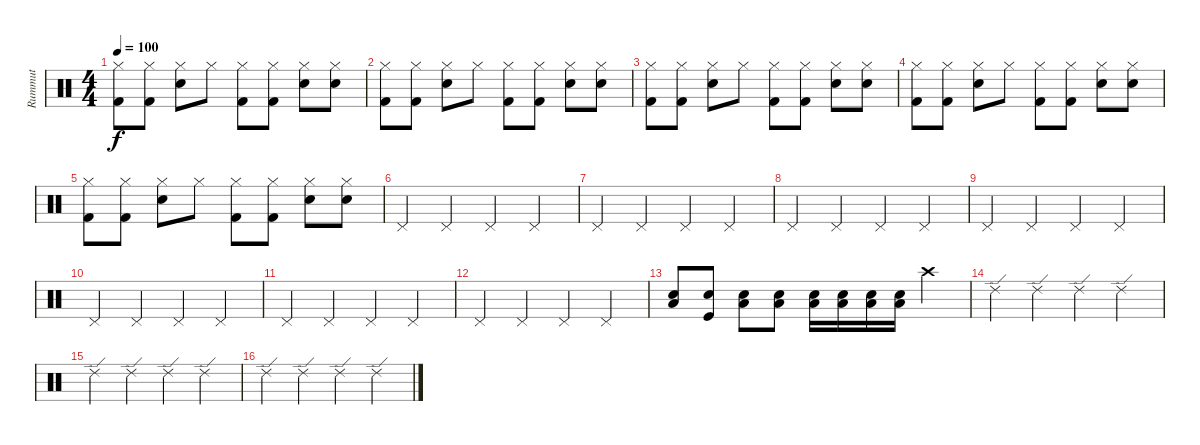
\track ("Rummut" "Rummut") {instrument percussion}
\staff {score}
\articulation defaults
\ts (4 4)
\tempo 100
\clef neutral
\ks c
("Hi-Hat (closed)" "Kick (hit) 2").8{dy f} ("Hi-Hat (closed)" "Kick (hit) 2").8 ("Hi-Hat (closed)" "Snare (hit) 2").8 "Hi-Hat (closed)".8 ("Hi-Hat (closed)" "Kick (hit) 2").8 ("Hi-Hat (closed)" "Kick (hit) 2").8 ("Hi-Hat (closed)" "Snare (hit) 2").8 ("Hi-Hat (closed)" "Snare (hit) 2").8 |
("Hi-Hat (closed)" "Kick (hit) 2").8 ("Hi-Hat (closed)" "Kick (hit) 2").8 ("Hi-Hat (closed)" "Snare (hit) 2").8 "Hi-Hat (closed)".8 ("Hi-Hat (closed)" "Kick (hit) 2").8 ("Hi-Hat (closed)" "Kick (hit) 2").8 ("Hi-Hat (closed)" "Snare (hit) 2").8 ("Hi-Hat (closed)" "Snare (hit) 2").8 |
("Hi-Hat (closed)" "Kick (hit) 2").8 ("Hi-Hat (closed)" "Kick (hit) 2").8 ("Hi-Hat (closed)" "Snare (hit) 2").8 "Hi-Hat (closed)".8 ("Hi-Hat (closed)" "Kick (hit) 2").8 ("Hi-Hat (closed)" "Kick (hit) 2").8 ("Hi-Hat (closed)" "Snare (hit) 2").8 ("Hi-Hat (closed)" "Snare (hit) 2").8 |
("Hi-Hat (closed)" "Kick (hit) 2").8 ("Hi-Hat (closed)" "Kick (hit) 2").8 ("Hi-Hat (closed)" "Snare (hit) 2").8 "Hi-Hat (closed)".8 ("Hi-Hat (closed)" "Kick (hit) 2").8 ("Hi-Hat (closed)" "Kick (hit) 2").8 ("Hi-Hat (closed)" "Snare (hit) 2").8 ("Hi-Hat (closed)" "Snare (hit) 2").8 |
("Hi-Hat (closed)" "Kick (hit) 2").8 ("Hi-Hat (closed)" "Kick (hit) 2").8 ("Hi-Hat (closed)" "Snare (hit) 2").8 "Hi-Hat (closed)".8 ("Hi-Hat (closed)" "Kick (hit) 2").8 ("Hi-Hat (closed)" "Kick (hit) 2").8 ("Hi-Hat (closed)" "Snare (hit) 2").8 ("Hi-Hat (closed)" "Snare (hit) 2").8 |
"Pedal Hi-Hat (hit)".4 "Pedal Hi-Hat (hit)".4 "Pedal Hi-Hat (hit)".4 "Pedal Hi-Hat (hit)".4 |
"Pedal Hi-Hat (hit)".4 "Pedal Hi-Hat (hit)".4 "Pedal Hi-Hat (hit)".4 "Pedal Hi-Hat (hit)".4 |
"Pedal Hi-Hat (hit)".4 "Pedal Hi-Hat (hit)".4 "Pedal Hi-Hat (hit)".4 "Pedal Hi-Hat (hit)".4 |
"Pedal Hi-Hat (hit)".4 "Pedal Hi-Hat (hit)".4 "Pedal Hi-Hat (hit)".4 "Pedal Hi-Hat (hit)".4 |
"Pedal Hi-Hat (hit)".4 "Pedal Hi-Hat (hit)".4 "Pedal Hi-Hat (hit)".4 "Pedal Hi-Hat (hit)".4 |
"Pedal Hi-Hat (hit)".4 "Pedal Hi-Hat (hit)".4 "Pedal Hi-Hat (hit)".4 "Pedal Hi-Hat (hit)".4 |
"Pedal Hi-Hat (hit)".4 "Pedal Hi-Hat (hit)".4 "Pedal Hi-Hat (hit)".4 "Pedal Hi-Hat (hit)".4 |
("Low Tom (hit)" "Snare (hit) 2").8 ("Snare (hit) 2" "Kick (hit)").8 ("Low Tom (hit)" "Snare (hit) 2").8 ("Low Tom (hit)" "Snare (hit) 2").8 ("Low Tom (hit)" "Snare (hit) 2").16 ("Low Tom (hit)" "Snare (hit) 2").16 ("Low Tom (hit)" "Snare (hit) 2").16 ("Low Tom (hit)" "Snare (hit) 2").16 "Crash high (hit)".4 |
"Ride (edge) 2".4 "Ride (edge) 2".4 "Ride (edge) 2".4 "Ride (edge) 2".4 |
"Ride (edge) 2".4 "Ride (edge) 2".4 "Ride (edge) 2".4 "Ride (edge) 2".4 |
"Ride (edge) 2".4 "Ride (edge) 2".4 "Ride (edge) 2".4 "Ride (edge) 2".4
